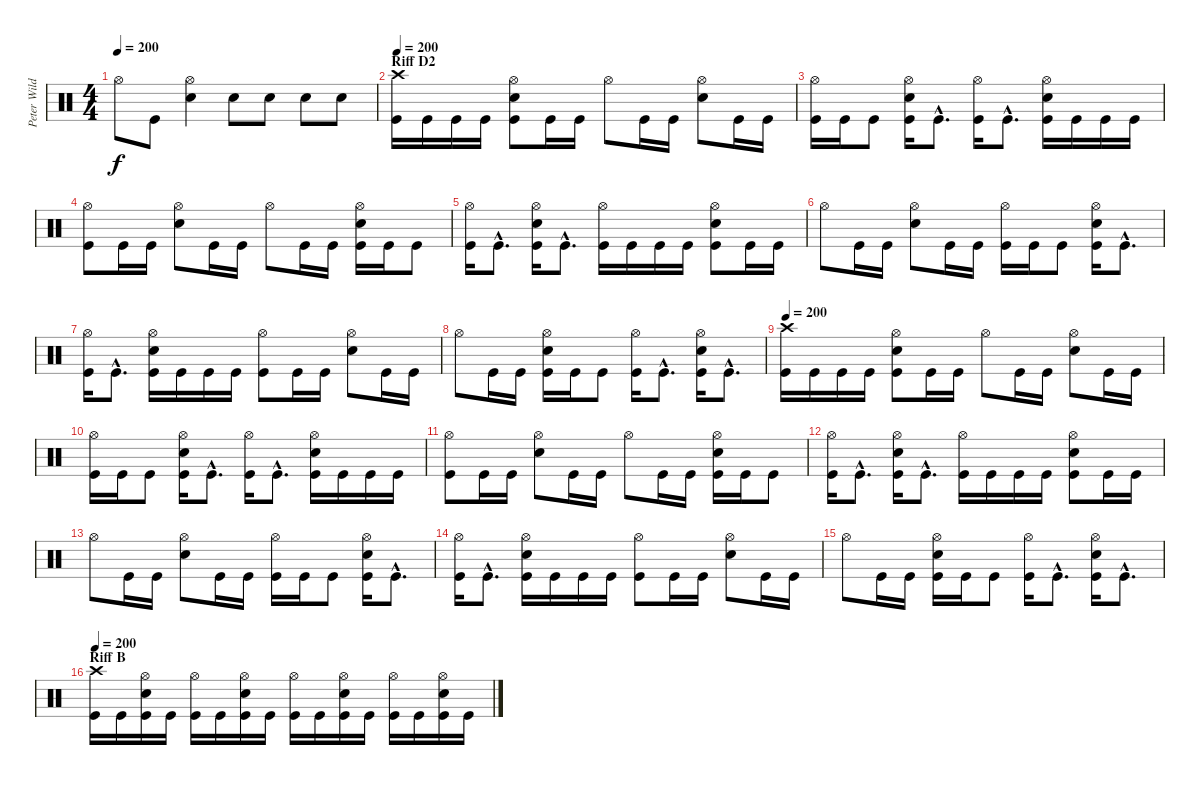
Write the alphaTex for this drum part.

\track ("Peter Wildoer " "Peter Wild") {instrument percussion}
\staff {score}
\articulation defaults
\ts (4 4)
\tempo 200
\clef neutral
\ks c "Hi-Hat (open)".8{dy f} "Kick (hit)".8
("Hi-Hat (open)" "Electric Snare (hit)").4 "Electric Snare (hit)".8 "Electric Snare (hit)".8 "Electric Snare (hit)".8 "Electric Snare (hit)".8 |
\section ("" "Riff D2")
\tempo 200
("Crash high (hit)" "Kick (hit)").16 "Kick (hit)".16 "Kick (hit)".16 "Kick (hit)".16 ("Hi-Hat (open)" "Electric Snare (hit)" "Kick (hit)").8 "Kick (hit)".16 "Kick (hit)".16 "Hi-Hat (open)".8 "Kick (hit)".16 "Kick (hit)".16 ("Hi-Hat (open)" "Electric Snare (hit)").8 "Kick (hit)".16 "Kick (hit)".16 |
("Hi-Hat (open)" "Kick (hit)").16 "Kick (hit)".16 "Kick (hit)".8 ("Hi-Hat (open)" "Electric Snare (hit)" "Kick (hit)").16 "Kick (hit)"{hac}.8{d} ("Hi-Hat (open)" "Kick (hit)").16 "Kick (hit)"{hac}.8{d} ("Hi-Hat (open)" "Electric Snare (hit)" "Kick (hit)").16 "Kick (hit)".16 "Kick (hit)".16 "Kick (hit)".16 |
("Hi-Hat (open)" "Kick (hit)").8 "Kick (hit)".16 "Kick (hit)".16 ("Hi-Hat (open)" "Electric Snare (hit)").8 "Kick (hit)".16 "Kick (hit)".16 "Hi-Hat (open)".8 "Kick (hit)".16 "Kick (hit)".16 ("Hi-Hat (open)" "Electric Snare (hit)" "Kick (hit)").16 "Kick (hit)".16 "Kick (hit)".8 |
("Hi-Hat (open)" "Kick (hit)").16 "Kick (hit)"{hac}.8{d} ("Hi-Hat (open)" "Electric Snare (hit)" "Kick (hit)").16 "Kick (hit)"{hac}.8{d} ("Hi-Hat (open)" "Kick (hit)").16 "Kick (hit)".16 "Kick (hit)".16 "Kick (hit)".16 ("Hi-Hat (open)" "Electric Snare (hit)" "Kick (hit)").8 "Kick (hit)".16 "Kick (hit)".16 |
"Hi-Hat (open)".8 "Kick (hit)".16 "Kick (hit)".16 ("Hi-Hat (open)" "Electric Snare (hit)").8 "Kick (hit)".16 "Kick (hit)".16 ("Hi-Hat (open)" "Kick (hit)").16 "Kick (hit)".16 "Kick (hit)".8 ("Hi-Hat (open)" "Electric Snare (hit)" "Kick (hit)").16 "Kick (hit)"{hac}.8{d} |
("Hi-Hat (open)" "Kick (hit)").16 "Kick (hit)"{hac}.8{d} ("Hi-Hat (open)" "Electric Snare (hit)" "Kick (hit)").16 "Kick (hit)".16 "Kick (hit)".16 "Kick (hit)".16 ("Hi-Hat (open)" "Kick (hit)").8 "Kick (hit)".16 "Kick (hit)".16 ("Hi-Hat (open)" "Electric Snare (hit)").8 "Kick (hit)".16 "Kick (hit)".16 |
"Hi-Hat (open)".8 "Kick (hit)".16 "Kick (hit)".16 ("Hi-Hat (open)" "Electric Snare (hit)" "Kick (hit)").16 "Kick (hit)".16 "Kick (hit)".8 ("Hi-Hat (open)" "Kick (hit)").16 "Kick (hit)"{hac}.8{d} ("Hi-Hat (open)" "Electric Snare (hit)" "Kick (hit)").16 "Kick (hit)"{hac}.8{d} |
\tempo 200
("Crash high (hit)" "Kick (hit)").16 "Kick (hit)".16 "Kick (hit)".16 "Kick (hit)".16 ("Hi-Hat (open)" "Electric Snare (hit)" "Kick (hit)").8 "Kick (hit)".16 "Kick (hit)".16 "Hi-Hat (open)".8 "Kick (hit)".16 "Kick (hit)".16 ("Hi-Hat (open)" "Electric Snare (hit)").8 "Kick (hit)".16 "Kick (hit)".16 |
("Hi-Hat (open)" "Kick (hit)").16 "Kick (hit)".16 "Kick (hit)".8 ("Hi-Hat (open)" "Electric Snare (hit)" "Kick (hit)").16 "Kick (hit)"{hac}.8{d} ("Hi-Hat (open)" "Kick (hit)").16 "Kick (hit)"{hac}.8{d} ("Hi-Hat (open)" "Electric Snare (hit)" "Kick (hit)").16 "Kick (hit)".16 "Kick (hit)".16 "Kick (hit)".16 |
("Hi-Hat (open)" "Kick (hit)").8 "Kick (hit)".16 "Kick (hit)".16 ("Hi-Hat (open)" "Electric Snare (hit)").8 "Kick (hit)".16 "Kick (hit)".16 "Hi-Hat (open)".8 "Kick (hit)".16 "Kick (hit)".16 ("Hi-Hat (open)" "Electric Snare (hit)" "Kick (hit)").16 "Kick (hit)".16 "Kick (hit)".8 |
("Hi-Hat (open)" "Kick (hit)").16 "Kick (hit)"{hac}.8{d} ("Hi-Hat (open)" "Electric Snare (hit)" "Kick (hit)").16 "Kick (hit)"{hac}.8{d} ("Hi-Hat (open)" "Kick (hit)").16 "Kick (hit)".16 "Kick (hit)".16 "Kick (hit)".16 ("Hi-Hat (open)" "Electric Snare (hit)" "Kick (hit)").8 "Kick (hit)".16 "Kick (hit)".16 |
"Hi-Hat (open)".8 "Kick (hit)".16 "Kick (hit)".16 ("Hi-Hat (open)" "Electric Snare (hit)").8 "Kick (hit)".16 "Kick (hit)".16 ("Hi-Hat (open)" "Kick (hit)").16 "Kick (hit)".16 "Kick (hit)".8 ("Hi-Hat (open)" "Electric Snare (hit)" "Kick (hit)").16 "Kick (hit)"{hac}.8{d} |
("Hi-Hat (open)" "Kick (hit)").16 "Kick (hit)"{hac}.8{d} ("Hi-Hat (open)" "Electric Snare (hit)" "Kick (hit)").16 "Kick (hit)".16 "Kick (hit)".16 "Kick (hit)".16 ("Hi-Hat (open)" "Kick (hit)").8 "Kick (hit)".16 "Kick (hit)".16 ("Hi-Hat (open)" "Electric Snare (hit)").8 "Kick (hit)".16 "Kick (hit)".16 |
"Hi-Hat (open)".8 "Kick (hit)".16 "Kick (hit)".16 ("Hi-Hat (open)" "Electric Snare (hit)" "Kick (hit)").16 "Kick (hit)".16 "Kick (hit)".8 ("Hi-Hat (open)" "Kick (hit)").16 "Kick (hit)"{hac}.8{d} ("Hi-Hat (open)" "Electric Snare (hit)" "Kick (hit)").16 "Kick (hit)"{hac}.8{d} |
\section ("" "Riff B")
\tempo 200
("Crash high (hit)" "Kick (hit)").16 "Kick (hit)".16 ("Hi-Hat (open)" "Electric Snare (hit)" "Kick (hit)").16 "Kick (hit)".16 ("Hi-Hat (open)" "Kick (hit)").16 "Kick (hit)".16 ("Hi-Hat (open)" "Electric Snare (hit)" "Kick (hit)").16 "Kick (hit)".16 ("Hi-Hat (open)" "Kick (hit)").16 "Kick (hit)".16 ("Hi-Hat (open)" "Electric Snare (hit)" "Kick (hit)").16 "Kick (hit)".16 ("Hi-Hat (open)" "Kick (hit)").16 "Kick (hit)".16 ("Hi-Hat (open)" "Electric Snare (hit)" "Kick (hit)").16 "Kick (hit)".16
